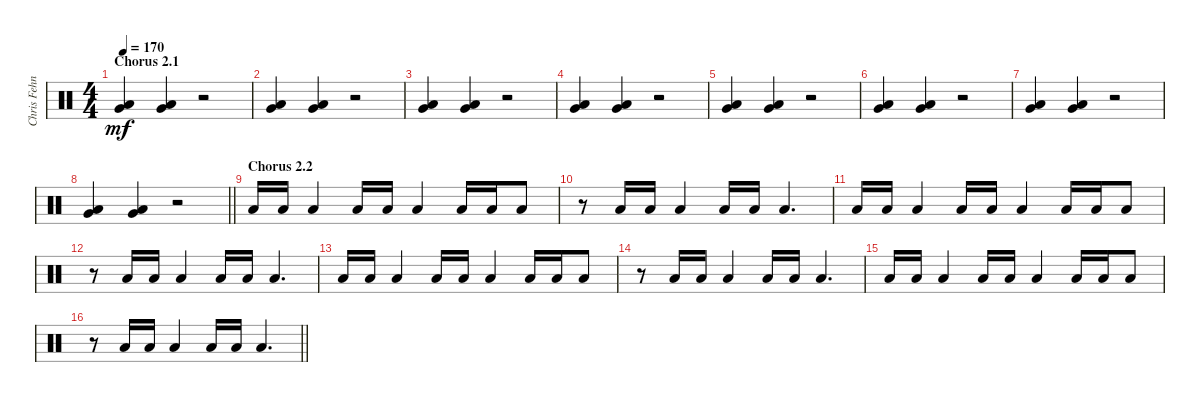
\track ("Chris Fehn" "Chris Fehn") {instrument percussion}
\staff {score}
\articulation defaults
\ts (4 4)
\section ("" "Chorus 2.1")
\tempo 170
\clef neutral
\ks c
("Very Low Tom (hit)" "Low Floor Tom (hit)").4{dy mf} ("Very Low Tom (hit)" "Low Floor Tom (hit)").4 r.2 |
("Very Low Tom (hit)" "Low Floor Tom (hit)").4 ("Very Low Tom (hit)" "Low Floor Tom (hit)").4 r.2 |
("Very Low Tom (hit)" "Low Floor Tom (hit)").4 ("Very Low Tom (hit)" "Low Floor Tom (hit)").4 r.2 |
("Very Low Tom (hit)" "Low Floor Tom (hit)").4 ("Very Low Tom (hit)" "Low Floor Tom (hit)").4 r.2 |
("Very Low Tom (hit)" "Low Floor Tom (hit)").4 ("Very Low Tom (hit)" "Low Floor Tom (hit)").4 r.2 |
("Very Low Tom (hit)" "Low Floor Tom (hit)").4 ("Very Low Tom (hit)" "Low Floor Tom (hit)").4 r.2 |
("Very Low Tom (hit)" "Low Floor Tom (hit)").4 ("Very Low Tom (hit)" "Low Floor Tom (hit)").4 r.2 |
\barLineRight lightlight
("Very Low Tom (hit)" "Low Floor Tom (hit)").4 ("Very Low Tom (hit)" "Low Floor Tom (hit)").4 r.2 |
\section ("" "Chorus 2.2")
"Low Floor Tom (hit)".16 "Low Floor Tom (hit)".16 "Low Floor Tom (hit)".4 "Low Floor Tom (hit)".16 "Low Floor Tom (hit)".16 "Low Floor Tom (hit)".4 "Low Floor Tom (hit)".16 "Low Floor Tom (hit)".16 "Low Floor Tom (hit)".8 |
r.8 "Low Floor Tom (hit)".16 "Low Floor Tom (hit)".16 "Low Floor Tom (hit)".4 "Low Floor Tom (hit)".16 "Low Floor Tom (hit)".16 "Low Floor Tom (hit)".4{d} |
"Low Floor Tom (hit)".16 "Low Floor Tom (hit)".16 "Low Floor Tom (hit)".4 "Low Floor Tom (hit)".16 "Low Floor Tom (hit)".16 "Low Floor Tom (hit)".4 "Low Floor Tom (hit)".16 "Low Floor Tom (hit)".16 "Low Floor Tom (hit)".8 |
r.8 "Low Floor Tom (hit)".16 "Low Floor Tom (hit)".16 "Low Floor Tom (hit)".4 "Low Floor Tom (hit)".16 "Low Floor Tom (hit)".16 "Low Floor Tom (hit)".4{d} |
"Low Floor Tom (hit)".16 "Low Floor Tom (hit)".16 "Low Floor Tom (hit)".4 "Low Floor Tom (hit)".16 "Low Floor Tom (hit)".16 "Low Floor Tom (hit)".4 "Low Floor Tom (hit)".16 "Low Floor Tom (hit)".16 "Low Floor Tom (hit)".8 |
r.8 "Low Floor Tom (hit)".16 "Low Floor Tom (hit)".16 "Low Floor Tom (hit)".4 "Low Floor Tom (hit)".16 "Low Floor Tom (hit)".16 "Low Floor Tom (hit)".4{d} |
"Low Floor Tom (hit)".16 "Low Floor Tom (hit)".16 "Low Floor Tom (hit)".4 "Low Floor Tom (hit)".16 "Low Floor Tom (hit)".16 "Low Floor Tom (hit)".4 "Low Floor Tom (hit)".16 "Low Floor Tom (hit)".16 "Low Floor Tom (hit)".8 |
\barLineRight lightlight
r.8 "Low Floor Tom (hit)".16 "Low Floor Tom (hit)".16 "Low Floor Tom (hit)".4 "Low Floor Tom (hit)".16 "Low Floor Tom (hit)".16 "Low Floor Tom (hit)".4{d}
